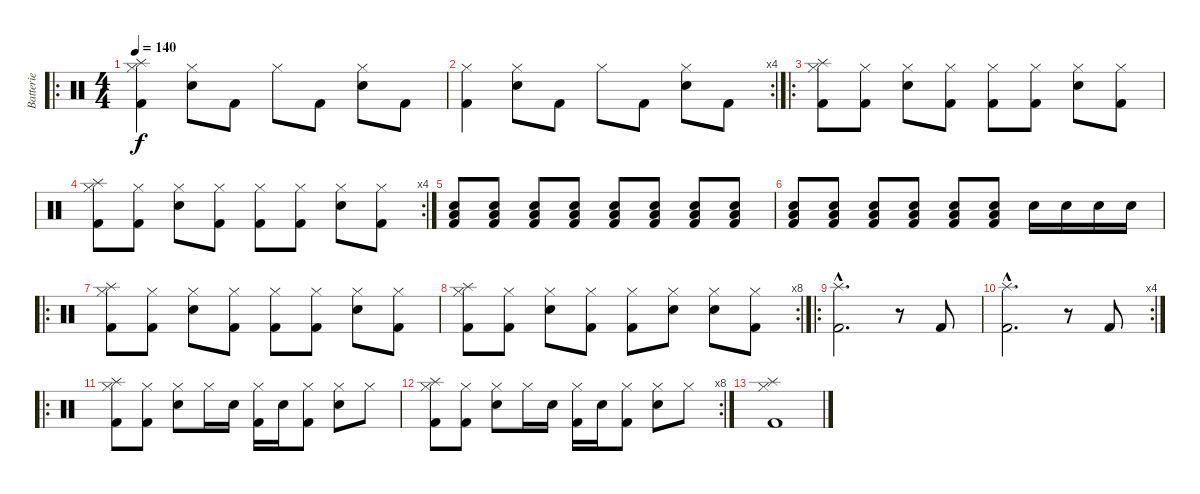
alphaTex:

\track ("Batterie" "Batterie") {instrument percussion}
\staff {score}
\articulation defaults
\ro
\ts (4 4)
\tempo 140
\clef neutral
\ks c
("Splash (hit)" "Hi-Hat (closed)" "Kick (hit) 2").4{dy f} ("Hi-Hat (closed)" "Snare (hit) 2").8 "Kick (hit) 2".8 "Hi-Hat (closed)".8 "Kick (hit) 2".8 ("Hi-Hat (closed)" "Snare (hit) 2").8 "Kick (hit) 2".8 |
\rc 4
("Hi-Hat (closed)" "Kick (hit) 2").4 ("Hi-Hat (closed)" "Snare (hit) 2").8 "Kick (hit) 2".8 "Hi-Hat (closed)".8 "Kick (hit) 2".8 ("Hi-Hat (closed)" "Snare (hit) 2").8 "Kick (hit) 2".8 |
\ro
("Splash (hit)" "Hi-Hat (closed)" "Kick (hit) 2").8 ("Hi-Hat (closed)" "Kick (hit) 2").8 ("Hi-Hat (closed)" "Snare (hit) 2").8 ("Hi-Hat (closed)" "Kick (hit) 2").8 ("Hi-Hat (closed)" "Kick (hit) 2").8 ("Hi-Hat (closed)" "Kick (hit) 2").8 ("Hi-Hat (closed)" "Snare (hit) 2").8 ("Hi-Hat (closed)" "Kick (hit) 2").8 |
\rc 4
("Splash (hit)" "Hi-Hat (closed)" "Kick (hit) 2").8 ("Hi-Hat (closed)" "Kick (hit) 2").8 ("Hi-Hat (closed)" "Snare (hit) 2").8 ("Hi-Hat (closed)" "Kick (hit) 2").8 ("Hi-Hat (closed)" "Kick (hit) 2").8 ("Hi-Hat (closed)" "Kick (hit) 2").8 ("Hi-Hat (closed)" "Snare (hit) 2").8 ("Hi-Hat (closed)" "Kick (hit) 2").8 |
("Snare (hit) 2" "Low Tom (hit)" "Kick (hit) 2").8 ("Snare (hit) 2" "Low Tom (hit)" "Kick (hit) 2").8 ("Snare (hit) 2" "Low Tom (hit)" "Kick (hit) 2").8 ("Snare (hit) 2" "Low Tom (hit)" "Kick (hit) 2").8 ("Snare (hit) 2" "Low Tom (hit)" "Kick (hit) 2").8 ("Snare (hit) 2" "Low Tom (hit)" "Kick (hit) 2").8 ("Snare (hit) 2" "Low Tom (hit)" "Kick (hit) 2").8 ("Snare (hit) 2" "Low Tom (hit)" "Kick (hit) 2").8 |
("Snare (hit) 2" "Low Tom (hit)" "Kick (hit) 2").8 ("Snare (hit) 2" "Low Tom (hit)" "Kick (hit) 2").8 ("Snare (hit) 2" "Low Tom (hit)" "Kick (hit) 2").8 ("Snare (hit) 2" "Low Tom (hit)" "Kick (hit) 2").8 ("Snare (hit) 2" "Low Tom (hit)" "Kick (hit) 2").8 ("Snare (hit) 2" "Low Tom (hit)" "Kick (hit) 2").8 "Snare (hit) 2".16 "Snare (hit) 2".16 "Snare (hit) 2".16 "Snare (hit) 2".16 |
\ro
("Splash (hit)" "Hi-Hat (closed)" "Kick (hit) 2").8 ("Hi-Hat (closed)" "Kick (hit) 2").8 ("Hi-Hat (closed)" "Snare (hit) 2").8 ("Hi-Hat (closed)" "Kick (hit) 2").8 ("Hi-Hat (closed)" "Kick (hit) 2").8 ("Hi-Hat (closed)" "Kick (hit) 2").8 ("Hi-Hat (closed)" "Snare (hit) 2").8 ("Hi-Hat (closed)" "Kick (hit) 2").8 |
\rc 8
("Splash (hit)" "Hi-Hat (closed)" "Kick (hit) 2").8 ("Hi-Hat (closed)" "Kick (hit) 2").8 ("Hi-Hat (closed)" "Snare (hit) 2").8 ("Hi-Hat (closed)" "Kick (hit) 2").8 ("Hi-Hat (closed)" "Kick (hit) 2").8 ("Hi-Hat (closed)" "Snare (hit) 2").8 ("Hi-Hat (closed)" "Snare (hit) 2").8 ("Hi-Hat (closed)" "Kick (hit) 2").8 |
\ro
("Splash (hit)"{hac} "Kick (hit) 2"{hac}).2{d} r.8 "Kick (hit) 2".8 |
\rc 4
("Splash (hit)"{hac} "Kick (hit) 2"{hac}).2{d} r.8 "Kick (hit) 2".8 |
\ro
("Splash (hit)" "Hi-Hat (closed)" "Kick (hit) 2").8 ("Hi-Hat (closed)" "Kick (hit) 2").8 ("Hi-Hat (closed)" "Snare (hit) 2").8 "Hi-Hat (closed)".16 "Snare (hit) 2".16 ("Hi-Hat (closed)" "Kick (hit) 2").16 "Snare (hit) 2".16 ("Hi-Hat (closed)" "Kick (hit) 2").8 ("Hi-Hat (closed)" "Snare (hit) 2").8 "Hi-Hat (closed)".8 |
\rc 8
("Splash (hit)" "Hi-Hat (closed)" "Kick (hit) 2").8 ("Hi-Hat (closed)" "Kick (hit) 2").8 ("Hi-Hat (closed)" "Snare (hit) 2").8 "Hi-Hat (closed)".16 "Snare (hit) 2".16 ("Hi-Hat (closed)" "Kick (hit) 2").16 "Snare (hit) 2".16 ("Hi-Hat (closed)" "Kick (hit) 2").8 ("Hi-Hat (closed)" "Snare (hit) 2").8 "Hi-Hat (closed)".8 |
("Splash (hit)" "Hi-Hat (closed)" "Kick (hit) 2").1
